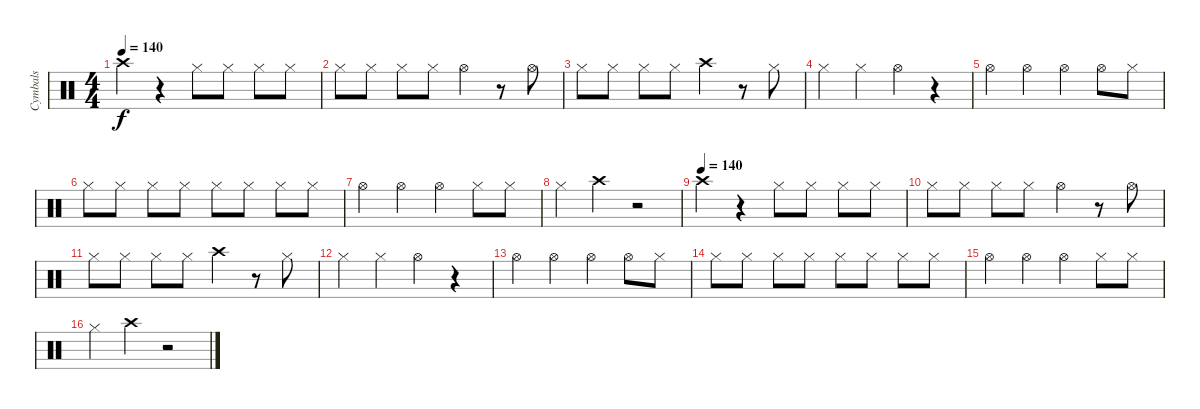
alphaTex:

\track ("Cymbals" "Cymbals") {instrument percussion}
\staff {score}
\articulation defaults
\ts (4 4)
\tempo 140
\clef neutral
\ks c "Crash high (hit)".4{dy f}
r.4 "Hi-Hat (closed)".8 "Hi-Hat (closed)".8 "Hi-Hat (closed)".8 "Hi-Hat (closed)".8 |
"Hi-Hat (closed)".8 "Hi-Hat (closed)".8 "Hi-Hat (closed)".8 "Hi-Hat (closed)".8 "Hi-Hat (open)".4 r.8 "Hi-Hat (open)".8 |
"Hi-Hat (closed)".8 "Hi-Hat (closed)".8 "Hi-Hat (closed)".8 "Hi-Hat (closed)".8 "Crash high (hit)".4 r.8 "Hi-Hat (closed)".8 |
"Hi-Hat (closed)".4 "Hi-Hat (closed)".4 "Hi-Hat (open)".4 r.4 |
"Hi-Hat (open)".4 "Hi-Hat (open)".4 "Hi-Hat (open)".4 "Hi-Hat (open)".8 "Hi-Hat (closed)".8 |
"Hi-Hat (closed)".8 "Hi-Hat (closed)".8 "Hi-Hat (closed)".8 "Hi-Hat (closed)".8 "Hi-Hat (closed)".8 "Hi-Hat (closed)".8 "Hi-Hat (closed)".8 "Hi-Hat (closed)".8 |
"Hi-Hat (open)".4 "Hi-Hat (open)".4 "Hi-Hat (open)".4 "Hi-Hat (closed)".8 "Hi-Hat (closed)".8 |
"Hi-Hat (closed)".4 "Crash high (hit)".4 r.2 |
\tempo (140)
"Crash high (hit)".4 r.4 "Hi-Hat (closed)".8 "Hi-Hat (closed)".8 "Hi-Hat (closed)".8 "Hi-Hat (closed)".8 |
"Hi-Hat (closed)".8 "Hi-Hat (closed)".8 "Hi-Hat (closed)".8 "Hi-Hat (closed)".8 "Hi-Hat (open)".4 r.8 "Hi-Hat (open)".8 |
"Hi-Hat (closed)".8 "Hi-Hat (closed)".8 "Hi-Hat (closed)".8 "Hi-Hat (closed)".8 "Crash high (hit)".4 r.8 "Hi-Hat (closed)".8 |
"Hi-Hat (closed)".4 "Hi-Hat (closed)".4 "Hi-Hat (open)".4 r.4 |
"Hi-Hat (open)".4 "Hi-Hat (open)".4 "Hi-Hat (open)".4 "Hi-Hat (open)".8 "Hi-Hat (closed)".8 |
"Hi-Hat (closed)".8 "Hi-Hat (closed)".8 "Hi-Hat (closed)".8 "Hi-Hat (closed)".8 "Hi-Hat (closed)".8 "Hi-Hat (closed)".8 "Hi-Hat (closed)".8 "Hi-Hat (closed)".8 |
"Hi-Hat (open)".4 "Hi-Hat (open)".4 "Hi-Hat (open)".4 "Hi-Hat (closed)".8 "Hi-Hat (closed)".8 |
"Hi-Hat (closed)".4 "Crash high (hit)".4 r.2
